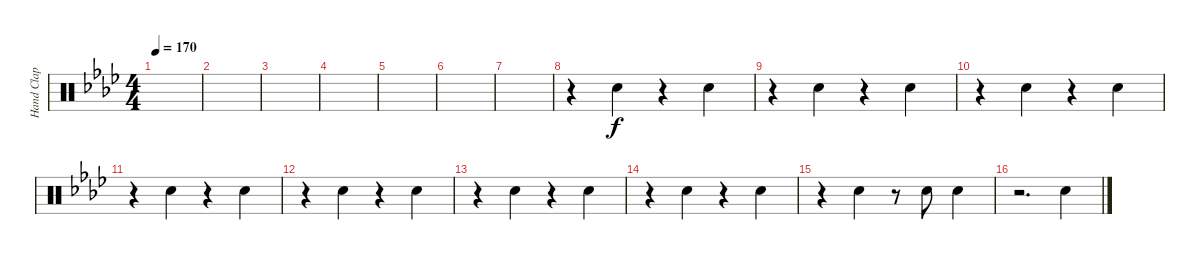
\track ("Hand Clap" "Hand Clap") {instrument percussion}
\staff {score}
\articulation defaults
\ts (4 4)
\tempo 170
\clef neutral
\ks ab
|
|
|
|
|
|
|
r.4 "Hand Clap (hit)".4 r.4 "Hand Clap (hit)".4 |
r.4 "Hand Clap (hit)".4 r.4 "Hand Clap (hit)".4 |
r.4 "Hand Clap (hit)".4 r.4 "Hand Clap (hit)".4 |
r.4 "Hand Clap (hit)".4 r.4 "Hand Clap (hit)".4 |
r.4 "Hand Clap (hit)".4 r.4 "Hand Clap (hit)".4 |
r.4 "Hand Clap (hit)".4 r.4 "Hand Clap (hit)".4 |
r.4 "Hand Clap (hit)".4 r.4 "Hand Clap (hit)".4 |
r.4 "Hand Clap (hit)".4 r.8 "Hand Clap (hit)".8 "Hand Clap (hit)".4 |
r.2{d} "Hand Clap (hit)".4
